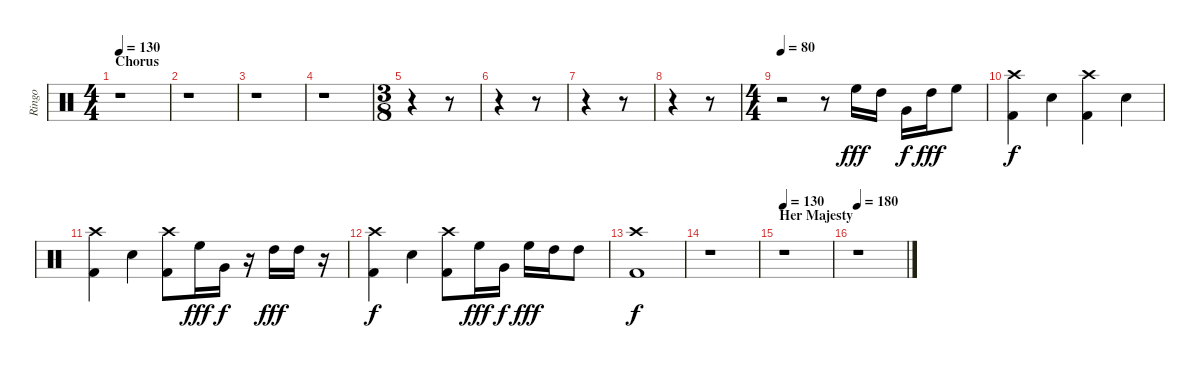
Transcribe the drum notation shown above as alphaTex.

\track ("Ringo" "Ringo") {instrument percussion}
\staff {score}
\articulation defaults
\ts (4 4)
\section ("" "Chorus")
\tempo 130
\clef neutral
\ks c
r.1{dy f} |
r.1 |
r.1 |
r.1 |
\ts (3 8)
r.4 r.8 |
r.4 r.8 |
r.4 r.8 |
r.4 r.8 |
\ts (4 4)
\tempo 80
r.2 r.8 "High Floor Tom (hit)".16{dy fff} "High Tom (hit)".16 "Very Low Tom (hit)".16{dy f} "High Tom (hit)".16{dy fff} "High Floor Tom (hit)".8 |
("Crash high (hit)" "Kick (hit) 2").4{dy f} "Snare (hit) 2".4 ("Crash high (hit)" "Kick (hit) 2").4 "Snare (hit) 2".4 |
("Crash high (hit)" "Kick (hit) 2").4 "Snare (hit) 2".4 ("Crash high (hit)" "Kick (hit) 2").8 "High Floor Tom (hit)".16{dy fff} "Very Low Tom (hit)".16{dy f} r.16 "High Tom (hit)".16{dy fff} "High Tom (hit)".16 r.16 |
("Crash high (hit)" "Kick (hit) 2").4{dy f} "Snare (hit) 2".4 ("Crash high (hit)" "Kick (hit) 2").8 "High Floor Tom (hit)".16{dy fff} "Very Low Tom (hit)".16{dy f} "High Floor Tom (hit)".16{dy fff} "High Tom (hit)".16 "High Tom (hit)".8 |
("Crash high (hit)" "Kick (hit) 2").1{dy f} |
r.1 |
\section ("" "Her Majesty")
\tempo 130
r.1 |
\tempo 180
r.1
